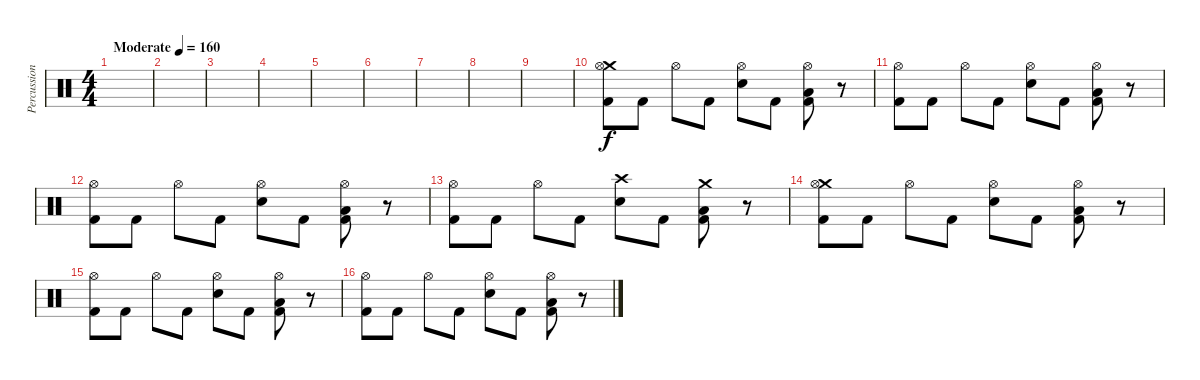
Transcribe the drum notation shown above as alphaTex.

\track ("Percussioni" "Percussion") {instrument percussion}
\staff {score}
\articulation defaults
\ts (4 4)
\tempo (160 "Moderate")
\clef neutral
\ks c
|
|
|
|
|
|
|
|
|
("Crash medium (hit)" "Hi-Hat (open)" "Kick (hit) 2").8 "Kick (hit) 2".8 "Hi-Hat (open)".8 "Kick (hit) 2".8 ("Hi-Hat (open)" "Snare (hit) 2").8 "Kick (hit) 2".8 ("Hi-Hat (open)" "Low Floor Tom (hit)" "Kick (hit) 2").8 r.8 |
("Hi-Hat (open)" "Kick (hit) 2").8 "Kick (hit) 2".8 "Hi-Hat (open)".8 "Kick (hit) 2".8 ("Hi-Hat (open)" "Snare (hit) 2").8 "Kick (hit) 2".8 ("Hi-Hat (open)" "Low Floor Tom (hit)" "Kick (hit) 2").8 r.8 |
("Hi-Hat (open)" "Kick (hit) 2").8 "Kick (hit) 2".8 "Hi-Hat (open)".8 "Kick (hit) 2".8 ("Hi-Hat (open)" "Snare (hit) 2").8 "Kick (hit) 2".8 ("Hi-Hat (open)" "Low Floor Tom (hit)" "Kick (hit) 2").8 r.8 |
("Hi-Hat (open)" "Kick (hit) 2").8 "Kick (hit) 2".8 "Hi-Hat (open)".8 "Kick (hit) 2".8 ("Crash high (hit)" "Snare (hit) 2").8 "Kick (hit) 2".8 ("Crash medium (hit)" "Low Floor Tom (hit)" "Kick (hit) 2").8 r.8 |
("Crash medium (hit)" "Hi-Hat (open)" "Kick (hit) 2").8 "Kick (hit) 2".8 "Hi-Hat (open)".8 "Kick (hit) 2".8 ("Hi-Hat (open)" "Snare (hit) 2").8 "Kick (hit) 2".8 ("Hi-Hat (open)" "Low Floor Tom (hit)" "Kick (hit) 2").8 r.8 |
("Hi-Hat (open)" "Kick (hit) 2").8 "Kick (hit) 2".8 "Hi-Hat (open)".8 "Kick (hit) 2".8 ("Hi-Hat (open)" "Snare (hit) 2").8 "Kick (hit) 2".8 ("Hi-Hat (open)" "Low Floor Tom (hit)" "Kick (hit) 2").8 r.8 |
("Hi-Hat (open)" "Kick (hit) 2").8 "Kick (hit) 2".8 "Hi-Hat (open)".8 "Kick (hit) 2".8 ("Hi-Hat (open)" "Snare (hit) 2").8 "Kick (hit) 2".8 ("Hi-Hat (open)" "Low Floor Tom (hit)" "Kick (hit) 2").8 r.8
